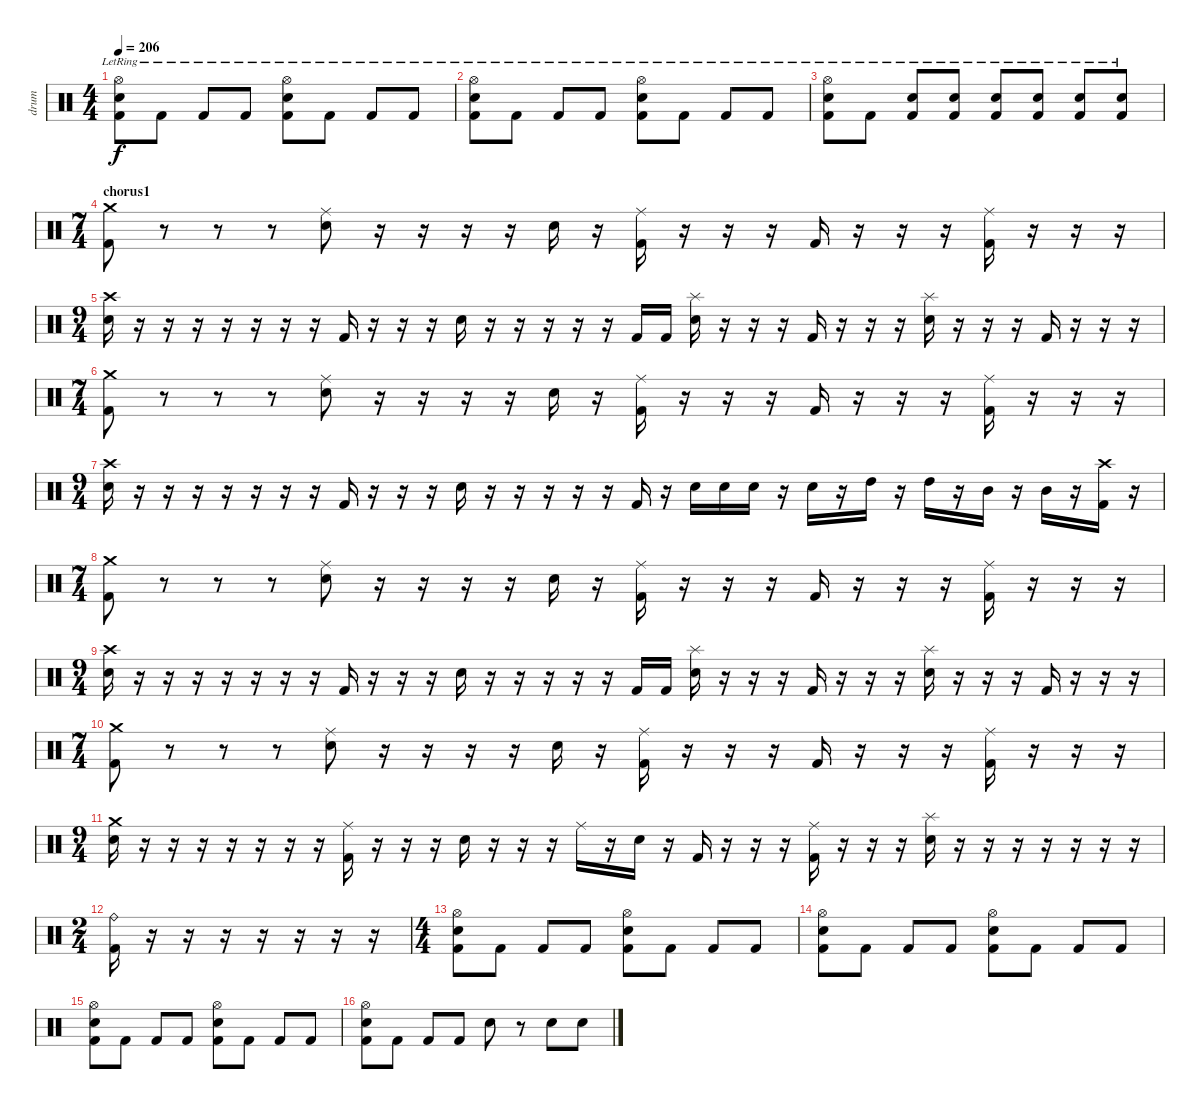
\track ("drum" "drum") {instrument percussion}
\staff {score}
\articulation defaults
\ts (4 4)
\tempo 206
\clef neutral
\ks c
("Hi-Hat (open)"{lr} "Electric Snare (hit)"{lr} "Kick (hit) 2"{lr}).8{dy f} "Kick (hit) 2"{lr}.8 "Kick (hit) 2"{lr}.8 "Kick (hit) 2"{lr}.8 ("Hi-Hat (open)"{lr} "Electric Snare (hit)"{lr} "Kick (hit) 2"{lr}).8 "Kick (hit) 2"{lr}.8 "Kick (hit) 2"{lr}.8 "Kick (hit) 2"{lr}.8 |
("Hi-Hat (open)"{lr} "Electric Snare (hit)"{lr} "Kick (hit) 2"{lr}).8 "Kick (hit) 2"{lr}.8 "Kick (hit) 2"{lr}.8 "Kick (hit) 2"{lr}.8 ("Hi-Hat (open)"{lr} "Electric Snare (hit)"{lr} "Kick (hit) 2"{lr}).8 "Kick (hit) 2"{lr}.8 "Kick (hit) 2"{lr}.8 "Kick (hit) 2"{lr}.8 |
("Hi-Hat (open)"{lr} "Electric Snare (hit)"{lr} "Kick (hit) 2"{lr}).8 "Kick (hit) 2"{lr}.8 ("Electric Snare (hit)"{lr} "Kick (hit) 2"{lr}).8 ("Electric Snare (hit)"{lr} "Kick (hit) 2"{lr}).8 ("Electric Snare (hit)"{lr} "Kick (hit) 2"{lr}).8 ("Electric Snare (hit)"{lr} "Kick (hit) 2"{lr}).8 ("Electric Snare (hit)"{lr} "Kick (hit) 2"{lr}).8 ("Electric Snare (hit)"{lr} "Kick (hit) 2"{lr}).8 |
\ts (7 4)
\section ("" "chorus1")
("Crash medium (hit)" "Kick (hit) 2").8 r.8 r.8 r.8 ("Ride (middle)" "Electric Snare (hit)").8 r.16 r.16 r.16 r.16 "Electric Snare (hit)".16 r.16 ("Ride (middle)" "Kick (hit) 2").16 r.16 r.16 r.16 "Kick (hit) 2".16 r.16 r.16 r.16 ("Ride (middle)" "Kick (hit) 2").16 r.16 r.16 r.16 |
\ts (9 4)
("Crash high (hit)" "Electric Snare (hit)").16 r.16 r.16 r.16 r.16 r.16 r.16 r.16 "Kick (hit) 2".16 r.16 r.16 r.16 "Electric Snare (hit)".16 r.16 r.16 r.16 r.16 r.16 "Kick (hit) 2".16 "Kick (hit) 2".16 ("Splash (hit)" "Electric Snare (hit)").16 r.16 r.16 r.16 "Kick (hit) 2".16 r.16 r.16 r.16 ("Splash (hit)" "Electric Snare (hit)").16 r.16 r.16 r.16 "Kick (hit) 2".16 r.16 r.16 r.16 |
\ts (7 4)
("Crash medium (hit)" "Kick (hit) 2").8 r.8 r.8 r.8 ("Ride (middle)" "Electric Snare (hit)").8 r.16 r.16 r.16 r.16 "Electric Snare (hit)".16 r.16 ("Ride (middle)" "Kick (hit) 2").16 r.16 r.16 r.16 "Kick (hit) 2".16 r.16 r.16 r.16 ("Ride (middle)" "Kick (hit) 2").16 r.16 r.16 r.16 |
\ts (9 4)
("Crash high (hit)" "Electric Snare (hit)").16 r.16 r.16 r.16 r.16 r.16 r.16 r.16 "Kick (hit) 2".16 r.16 r.16 r.16 "Electric Snare (hit)".16 r.16 r.16 r.16 r.16 r.16 "Kick (hit) 2".16 r.16 "Electric Snare (hit)".16 "Electric Snare (hit)".16 "Electric Snare (hit)".16 r.16 "Electric Snare (hit)".16 r.16 "High Tom (hit)".16 r.16 "High Tom (hit)".16 r.16 "Mid Tom (hit)".16 r.16 "Mid Tom (hit)".16 r.16 ("Crash high (hit)" "Kick (hit) 2").16 r.16 |
\ts (7 4)
("Crash medium (hit)" "Kick (hit) 2").8 r.8 r.8 r.8 ("Ride (middle)" "Electric Snare (hit)").8 r.16 r.16 r.16 r.16 "Electric Snare (hit)".16 r.16 ("Ride (middle)" "Kick (hit) 2").16 r.16 r.16 r.16 "Kick (hit) 2".16 r.16 r.16 r.16 ("Ride (middle)" "Kick (hit) 2").16 r.16 r.16 r.16 |
\ts (9 4)
("Crash high (hit)" "Electric Snare (hit)").16 r.16 r.16 r.16 r.16 r.16 r.16 r.16 "Kick (hit) 2".16 r.16 r.16 r.16 "Electric Snare (hit)".16 r.16 r.16 r.16 r.16 r.16 "Kick (hit) 2".16 "Kick (hit) 2".16 ("Splash (hit)" "Electric Snare (hit)").16 r.16 r.16 r.16 "Kick (hit) 2".16 r.16 r.16 r.16 ("Splash (hit)" "Electric Snare (hit)").16 r.16 r.16 r.16 "Kick (hit) 2".16 r.16 r.16 r.16 |
\ts (7 4)
("Crash medium (hit)" "Kick (hit) 2").8 r.8 r.8 r.8 ("Ride (middle)" "Electric Snare (hit)").8 r.16 r.16 r.16 r.16 "Electric Snare (hit)".16 r.16 ("Ride (middle)" "Kick (hit) 2").16 r.16 r.16 r.16 "Kick (hit) 2".16 r.16 r.16 r.16 ("Ride (middle)" "Kick (hit) 2").16 r.16 r.16 r.16 |
\ts (9 4)
("Crash medium (hit)" "Electric Snare (hit)").16 r.16 r.16 r.16 r.16 r.16 r.16 r.16 ("Ride (middle)" "Kick (hit) 2").16 r.16 r.16 r.16 "Electric Snare (hit)".16 r.16 r.16 r.16 "Ride (middle)".16 r.16 "Electric Snare (hit)".16 r.16 "Kick (hit) 2".16 r.16 r.16 r.16 ("Ride (middle)" "Kick (hit) 2").16 r.16 r.16 r.16 ("Splash (hit)" "Electric Snare (hit)").16 r.16 r.16 r.16 r.16 r.16 r.16 r.16 |
\ts (2 4)
("Ride (bell)" "Kick (hit) 2").16 r.16 r.16 r.16 r.16 r.16 r.16 r.16 |
\ts (4 4)
("Hi-Hat (open)" "Electric Snare (hit)" "Kick (hit) 2").8 "Kick (hit) 2".8 "Kick (hit) 2".8 "Kick (hit) 2".8 ("Hi-Hat (open)" "Electric Snare (hit)" "Kick (hit) 2").8 "Kick (hit) 2".8 "Kick (hit) 2".8 "Kick (hit) 2".8 |
("Hi-Hat (open)" "Electric Snare (hit)" "Kick (hit) 2").8 "Kick (hit) 2".8 "Kick (hit) 2".8 "Kick (hit) 2".8 ("Hi-Hat (open)" "Electric Snare (hit)" "Kick (hit) 2").8 "Kick (hit) 2".8 "Kick (hit) 2".8 "Kick (hit) 2".8 |
("Hi-Hat (open)" "Electric Snare (hit)" "Kick (hit) 2").8 "Kick (hit) 2".8 "Kick (hit) 2".8 "Kick (hit) 2".8 ("Hi-Hat (open)" "Electric Snare (hit)" "Kick (hit) 2").8 "Kick (hit) 2".8 "Kick (hit) 2".8 "Kick (hit) 2".8 |
("Hi-Hat (open)" "Electric Snare (hit)" "Kick (hit) 2").8 "Kick (hit) 2".8 "Kick (hit) 2".8 "Kick (hit) 2".8 "Electric Snare (hit)".8 r.8 "Electric Snare (hit)".8 "Electric Snare (hit)".8
